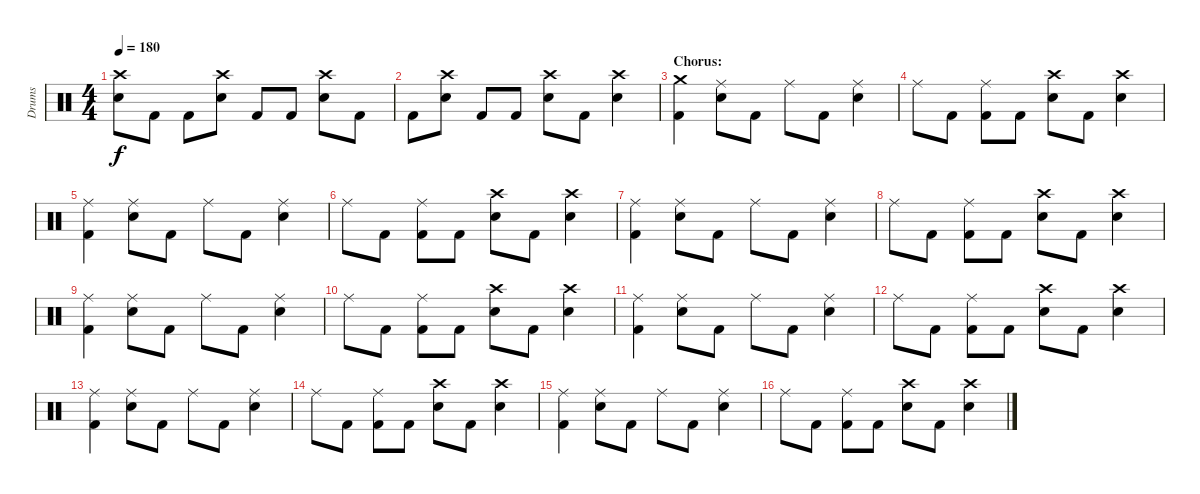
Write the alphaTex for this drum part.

\track ("Drums" "Drums") {instrument percussion}
\staff {score}
\articulation defaults
\ts (4 4)
\tempo 180
\clef neutral
\ks c
("Crash high (hit)" "Electric Snare (hit)").8{dy f} "Kick (hit) 2".8 "Kick (hit) 2".8 ("Crash high (hit)" "Electric Snare (hit)").8 "Kick (hit) 2".8 "Kick (hit) 2".8 ("Crash high (hit)" "Electric Snare (hit)").8 "Kick (hit) 2".8 |
"Kick (hit) 2".8 ("Crash high (hit)" "Electric Snare (hit)").8 "Kick (hit) 2".8 "Kick (hit) 2".8 ("Crash high (hit)" "Electric Snare (hit)").8 "Kick (hit) 2".8 ("Crash high (hit)" "Electric Snare (hit)").4 |
\section ("" "Chorus:")
("Crash medium (hit)" "Kick (hit) 2").4 ("Ride (middle)" "Electric Snare (hit)").8 "Kick (hit) 2".8 "Ride (middle)".8 "Kick (hit) 2".8 ("Ride (middle)" "Electric Snare (hit)").4 |
"Ride (middle)".8 "Kick (hit) 2".8 ("Ride (middle)" "Kick (hit) 2").8 "Kick (hit) 2".8 ("Crash high (hit)" "Electric Snare (hit)").8 "Kick (hit) 2".8 ("Crash high (hit)" "Electric Snare (hit)").4 |
("Ride (middle)" "Kick (hit) 2").4 ("Ride (middle)" "Electric Snare (hit)").8 "Kick (hit) 2".8 "Ride (middle)".8 "Kick (hit) 2".8 ("Ride (middle)" "Electric Snare (hit)").4 |
"Ride (middle)".8 "Kick (hit) 2".8 ("Ride (middle)" "Kick (hit) 2").8 "Kick (hit) 2".8 ("Crash high (hit)" "Electric Snare (hit)").8 "Kick (hit) 2".8 ("Crash high (hit)" "Electric Snare (hit)").4 |
("Ride (middle)" "Kick (hit) 2").4 ("Ride (middle)" "Electric Snare (hit)").8 "Kick (hit) 2".8 "Ride (middle)".8 "Kick (hit) 2".8 ("Ride (middle)" "Electric Snare (hit)").4 |
"Ride (middle)".8 "Kick (hit) 2".8 ("Ride (middle)" "Kick (hit) 2").8 "Kick (hit) 2".8 ("Crash high (hit)" "Electric Snare (hit)").8 "Kick (hit) 2".8 ("Crash high (hit)" "Electric Snare (hit)").4 |
("Ride (middle)" "Kick (hit) 2").4 ("Ride (middle)" "Electric Snare (hit)").8 "Kick (hit) 2".8 "Ride (middle)".8 "Kick (hit) 2".8 ("Ride (middle)" "Electric Snare (hit)").4 |
"Ride (middle)".8 "Kick (hit) 2".8 ("Ride (middle)" "Kick (hit) 2").8 "Kick (hit) 2".8 ("Crash high (hit)" "Electric Snare (hit)").8 "Kick (hit) 2".8 ("Crash high (hit)" "Electric Snare (hit)").4 |
("Ride (middle)" "Kick (hit) 2").4 ("Ride (middle)" "Electric Snare (hit)").8 "Kick (hit) 2".8 "Ride (middle)".8 "Kick (hit) 2".8 ("Ride (middle)" "Electric Snare (hit)").4 |
"Ride (middle)".8 "Kick (hit) 2".8 ("Ride (middle)" "Kick (hit) 2").8 "Kick (hit) 2".8 ("Crash high (hit)" "Electric Snare (hit)").8 "Kick (hit) 2".8 ("Crash high (hit)" "Electric Snare (hit)").4 |
("Ride (middle)" "Kick (hit) 2").4 ("Ride (middle)" "Electric Snare (hit)").8 "Kick (hit) 2".8 "Ride (middle)".8 "Kick (hit) 2".8 ("Ride (middle)" "Electric Snare (hit)").4 |
"Ride (middle)".8 "Kick (hit) 2".8 ("Ride (middle)" "Kick (hit) 2").8 "Kick (hit) 2".8 ("Crash high (hit)" "Electric Snare (hit)").8 "Kick (hit) 2".8 ("Crash high (hit)" "Electric Snare (hit)").4 |
("Ride (middle)" "Kick (hit) 2").4 ("Ride (middle)" "Electric Snare (hit)").8 "Kick (hit) 2".8 "Ride (middle)".8 "Kick (hit) 2".8 ("Ride (middle)" "Electric Snare (hit)").4 |
"Ride (middle)".8 "Kick (hit) 2".8 ("Ride (middle)" "Kick (hit) 2").8 "Kick (hit) 2".8 ("Crash high (hit)" "Electric Snare (hit)").8 "Kick (hit) 2".8 ("Crash high (hit)" "Electric Snare (hit)").4
